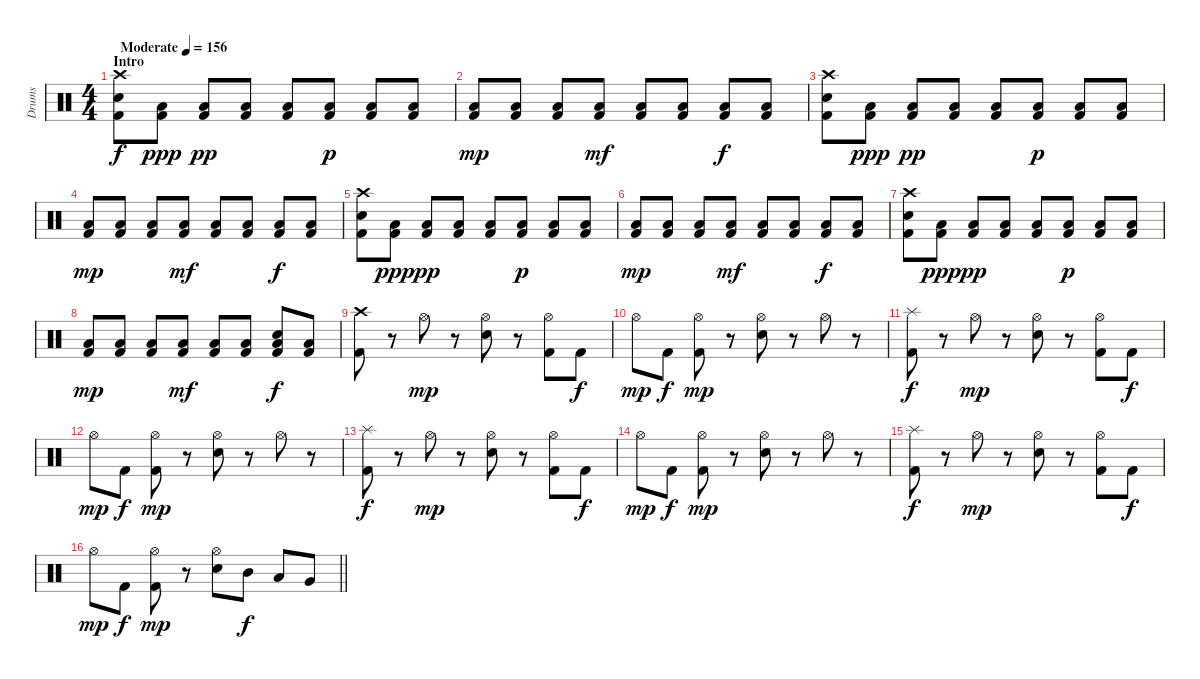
\track ("Drums" "Drums") {instrument percussion}
\staff {score}
\articulation defaults
\ts (4 4)
\section ("" "Intro")
\tempo (156 "Moderate")
\clef neutral
\ks c
("Kick (hit) 2" "Snare (hit) 2" "Crash high (hit)").8{dy f} ("Kick (hit) 2" "Low Floor Tom (hit)").8{dy ppp} ("Kick (hit) 2" "Low Floor Tom (hit)").8{dy pp} ("Kick (hit) 2" "Low Floor Tom (hit)").8 ("Kick (hit) 2" "Low Floor Tom (hit)").8 ("Kick (hit) 2" "Low Floor Tom (hit)").8{dy p} ("Kick (hit) 2" "Low Floor Tom (hit)").8 ("Kick (hit) 2" "Low Floor Tom (hit)").8 |
("Kick (hit) 2" "Low Floor Tom (hit)").8{dy mp} ("Kick (hit) 2" "Low Floor Tom (hit)").8 ("Kick (hit) 2" "Low Floor Tom (hit)").8 ("Kick (hit) 2" "Low Floor Tom (hit)").8{dy mf} ("Kick (hit) 2" "Low Floor Tom (hit)").8 ("Kick (hit) 2" "Low Floor Tom (hit)").8 ("Kick (hit) 2" "Low Floor Tom (hit)").8{dy f} ("Kick (hit) 2" "Low Floor Tom (hit)").8 |
("Kick (hit) 2" "Snare (hit) 2" "Crash high (hit)").8 ("Kick (hit) 2" "Low Floor Tom (hit)").8{dy ppp} ("Kick (hit) 2" "Low Floor Tom (hit)").8{dy pp} ("Kick (hit) 2" "Low Floor Tom (hit)").8 ("Kick (hit) 2" "Low Floor Tom (hit)").8 ("Kick (hit) 2" "Low Floor Tom (hit)").8{dy p} ("Kick (hit) 2" "Low Floor Tom (hit)").8 ("Kick (hit) 2" "Low Floor Tom (hit)").8 |
("Kick (hit) 2" "Low Floor Tom (hit)").8{dy mp} ("Kick (hit) 2" "Low Floor Tom (hit)").8 ("Kick (hit) 2" "Low Floor Tom (hit)").8 ("Kick (hit) 2" "Low Floor Tom (hit)").8{dy mf} ("Kick (hit) 2" "Low Floor Tom (hit)").8 ("Kick (hit) 2" "Low Floor Tom (hit)").8 ("Kick (hit) 2" "Low Floor Tom (hit)").8{dy f} ("Kick (hit) 2" "Low Floor Tom (hit)").8 |
("Kick (hit) 2" "Snare (hit) 2" "Crash high (hit)").8 ("Kick (hit) 2" "Low Floor Tom (hit)").8{dy ppp} ("Kick (hit) 2" "Low Floor Tom (hit)").8{dy pp} ("Kick (hit) 2" "Low Floor Tom (hit)").8 ("Kick (hit) 2" "Low Floor Tom (hit)").8 ("Kick (hit) 2" "Low Floor Tom (hit)").8{dy p} ("Kick (hit) 2" "Low Floor Tom (hit)").8 ("Kick (hit) 2" "Low Floor Tom (hit)").8 |
("Kick (hit) 2" "Low Floor Tom (hit)").8{dy mp} ("Kick (hit) 2" "Low Floor Tom (hit)").8 ("Kick (hit) 2" "Low Floor Tom (hit)").8 ("Kick (hit) 2" "Low Floor Tom (hit)").8{dy mf} ("Kick (hit) 2" "Low Floor Tom (hit)").8 ("Kick (hit) 2" "Low Floor Tom (hit)").8 ("Kick (hit) 2" "Low Floor Tom (hit)").8{dy f} ("Kick (hit) 2" "Low Floor Tom (hit)").8 |
("Kick (hit) 2" "Snare (hit) 2" "Crash high (hit)").8 ("Kick (hit) 2" "Low Floor Tom (hit)").8{dy ppp} ("Kick (hit) 2" "Low Floor Tom (hit)").8{dy pp} ("Kick (hit) 2" "Low Floor Tom (hit)").8 ("Kick (hit) 2" "Low Floor Tom (hit)").8 ("Kick (hit) 2" "Low Floor Tom (hit)").8{dy p} ("Kick (hit) 2" "Low Floor Tom (hit)").8 ("Kick (hit) 2" "Low Floor Tom (hit)").8 |
("Kick (hit) 2" "Low Floor Tom (hit)").8{dy mp} ("Kick (hit) 2" "Low Floor Tom (hit)").8 ("Kick (hit) 2" "Low Floor Tom (hit)").8 ("Kick (hit) 2" "Low Floor Tom (hit)").8{dy mf} ("Kick (hit) 2" "Low Floor Tom (hit)").8 ("Kick (hit) 2" "Low Floor Tom (hit)").8 ("Kick (hit) 2" "Snare (hit) 2" "Low Floor Tom (hit)").8{dy f} ("Kick (hit) 2" "Low Floor Tom (hit)").8 |
("Kick (hit) 2" "Crash high (hit)").8 r.8 "Hi-Hat (open)".8{dy mp} r.8 ("Snare (hit) 2" "Hi-Hat (open)").8 r.8 ("Kick (hit) 2" "Hi-Hat (open)").8 "Kick (hit) 2".8{dy f} |
"Hi-Hat (open)".8{dy mp} "Kick (hit) 2".8{dy f} ("Kick (hit) 2" "Hi-Hat (open)").8{dy mp} r.8 ("Snare (hit) 2" "Hi-Hat (open)").8 r.8 "Hi-Hat (open)".8 r.8 |
("Kick (hit) 2" "Splash (hit)").8{dy f} r.8 "Hi-Hat (open)".8{dy mp} r.8 ("Snare (hit) 2" "Hi-Hat (open)").8 r.8 ("Kick (hit) 2" "Hi-Hat (open)").8 "Kick (hit) 2".8{dy f} |
"Hi-Hat (open)".8{dy mp} "Kick (hit) 2".8{dy f} ("Kick (hit) 2" "Hi-Hat (open)").8{dy mp} r.8 ("Snare (hit) 2" "Hi-Hat (open)").8 r.8 "Hi-Hat (open)".8 r.8 |
("Kick (hit) 2" "Splash (hit)").8{dy f} r.8 "Hi-Hat (open)".8{dy mp} r.8 ("Snare (hit) 2" "Hi-Hat (open)").8 r.8 ("Kick (hit) 2" "Hi-Hat (open)").8 "Kick (hit) 2".8{dy f} |
"Hi-Hat (open)".8{dy mp} "Kick (hit) 2".8{dy f} ("Kick (hit) 2" "Hi-Hat (open)").8{dy mp} r.8 ("Snare (hit) 2" "Hi-Hat (open)").8 r.8 "Hi-Hat (open)".8 r.8 |
("Kick (hit) 2" "Splash (hit)").8{dy f} r.8 "Hi-Hat (open)".8{dy mp} r.8 ("Snare (hit) 2" "Hi-Hat (open)").8 r.8 ("Kick (hit) 2" "Hi-Hat (open)").8 "Kick (hit) 2".8{dy f} |
\barLineRight lightlight "Hi-Hat (open)".8{dy mp} "Kick (hit) 2".8{dy f}
("Kick (hit) 2" "Hi-Hat (open)").8{dy mp} r.8 ("Snare (hit) 2" "Hi-Hat (open)").8 "Mid Tom (hit)".8{dy f} "Low Tom (hit)".8 "Very Low Tom (hit)".8
